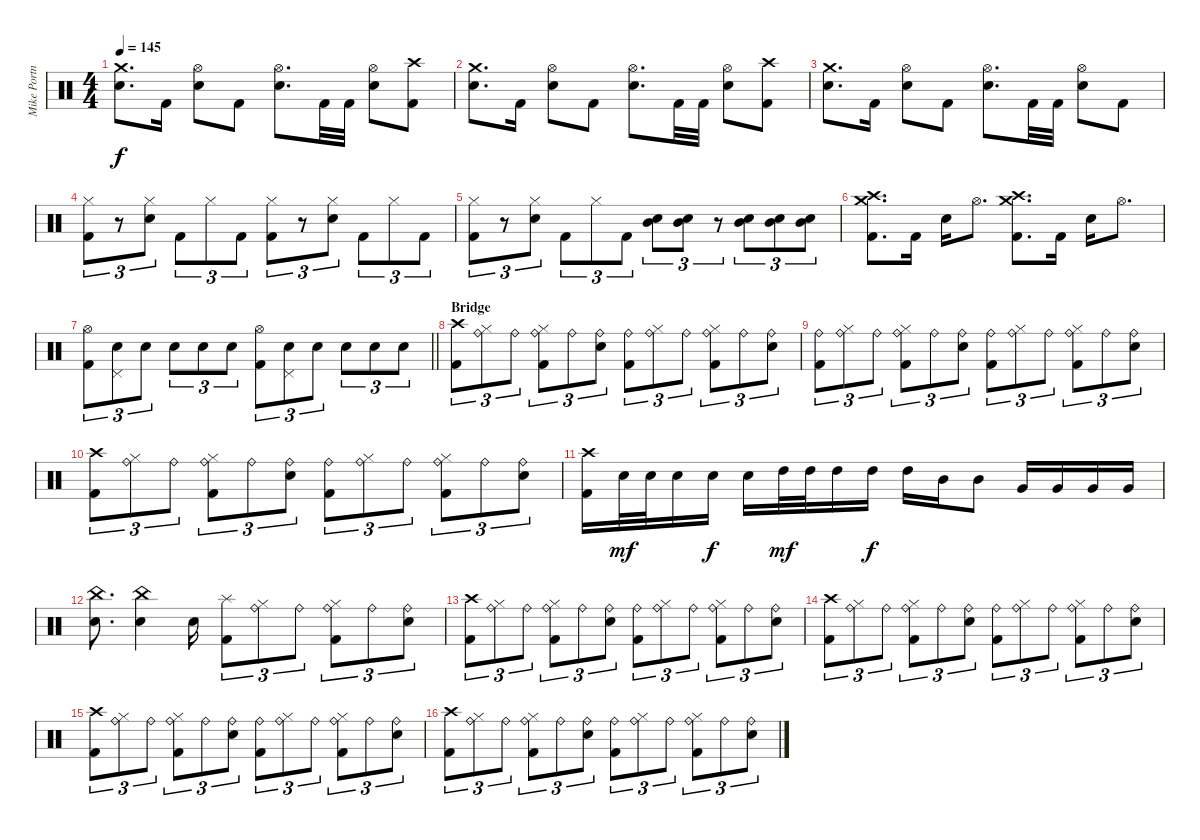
\track ("Mike Portnoy" "Mike Portn") {instrument percussion}
\staff {score}
\articulation defaults
\ts (4 4)
\tempo 145
\clef neutral
\ks c
("Crash medium (hit)" "Electric Snare (hit)").8{d dy f} "Kick (hit) 2".16 ("Hi-Hat (open)" "Electric Snare (hit)").8 "Kick (hit) 2".8 ("Hi-Hat (open)" "Electric Snare (hit)").8{d} "Kick (hit) 2".32 "Kick (hit) 2".32 ("Hi-Hat (open)" "Electric Snare (hit)").8 ("Crash high (hit)" "Kick (hit) 2").8 |
("Crash medium (hit)" "Electric Snare (hit)").8{d} "Kick (hit) 2".16 ("Hi-Hat (open)" "Electric Snare (hit)").8 "Kick (hit) 2".8 ("Hi-Hat (open)" "Electric Snare (hit)").8{d} "Kick (hit) 2".32 "Kick (hit) 2".32 ("Hi-Hat (open)" "Electric Snare (hit)").8 ("Crash high (hit)" "Kick (hit) 2").8 |
("Crash medium (hit)" "Electric Snare (hit)").8{d} "Kick (hit) 2".16 ("Hi-Hat (open)" "Electric Snare (hit)").8 "Kick (hit) 2".8 ("Hi-Hat (open)" "Electric Snare (hit)").8{d} "Kick (hit) 2".32 "Kick (hit) 2".32 ("Hi-Hat (open)" "Electric Snare (hit)").8 "Kick (hit) 2".8 |
("Hi-Hat (closed)" "Kick (hit) 2").8{tu (3 2)} r.8{tu (3 2)} ("Hi-Hat (closed)" "Electric Snare (hit)").8{tu (3 2)} "Kick (hit) 2".8{tu (3 2)} "Hi-Hat (closed)".8{tu (3 2)} "Kick (hit) 2".8{tu (3 2)} ("Hi-Hat (closed)" "Kick (hit) 2").8{tu (3 2)} r.8{tu (3 2)} ("Hi-Hat (closed)" "Electric Snare (hit)").8{tu (3 2)} "Kick (hit) 2".8{tu (3 2)} "Hi-Hat (closed)".8{tu (3 2)} "Kick (hit) 2".8{tu (3 2)} |
("Hi-Hat (closed)" "Kick (hit) 2").8{tu (3 2)} r.8{tu (3 2)} ("Hi-Hat (closed)" "Electric Snare (hit)").8{tu (3 2)} "Kick (hit) 2".8{tu (3 2)} "Hi-Hat (closed)".8{tu (3 2)} "Kick (hit) 2".8{tu (3 2)} ("Mid Tom (hit)" "Electric Snare (hit)").8{tu (3 2)} ("Mid Tom (hit)" "Electric Snare (hit)").8{tu (3 2)} r.8{tu (3 2)} ("Mid Tom (hit)" "Electric Snare (hit)").8{tu (3 2)} ("Mid Tom (hit)" "Electric Snare (hit)").8{tu (3 2)} ("Mid Tom (hit)" "Electric Snare (hit)").8{tu (3 2)} |
("Crash high (hit)" "Crash medium (hit)" "Kick (hit) 2").8{d} "Kick (hit) 2".16 "Electric Snare (hit)".16 "Hi-Hat (open)".8{d} ("Crash high (hit)" "Crash medium (hit)" "Kick (hit) 2").8{d} "Kick (hit) 2".16 "Electric Snare (hit)".16 "Hi-Hat (open)".8{d} |
\barLineRight lightlight
("Hi-Hat (open)" "Kick (hit) 2").8{tu (3 2)} ("Electric Snare (hit)" "Pedal Hi-Hat (hit)").8{tu (3 2)} "Electric Snare (hit)".8{tu (3 2)} "Electric Snare (hit)".8{tu (3 2)} "Electric Snare (hit)".8{tu (3 2)} "Electric Snare (hit)".8{tu (3 2)} ("Hi-Hat (open)" "Kick (hit) 2").8{tu (3 2)} ("Electric Snare (hit)" "Pedal Hi-Hat (hit)").8{tu (3 2)} "Electric Snare (hit)".8{tu (3 2)} "Electric Snare (hit)".8{tu (3 2)} "Electric Snare (hit)".8{tu (3 2)} "Electric Snare (hit)".8{tu (3 2)} |
\section ("" "Bridge")
("Crash high (hit)" "Kick (hit) 2").8{tu (3 2)} ("Ride (bell)" "Hi-Hat (closed)").8{tu (3 2)} "Ride (bell)".8{tu (3 2)} ("Ride (bell)" "Hi-Hat (closed)" "Kick (hit) 2").8{tu (3 2)} "Ride (bell)".8{tu (3 2)} ("Ride (bell)" "Electric Snare (hit)").8{tu (3 2)} ("Ride (bell)" "Kick (hit) 2").8{tu (3 2)} ("Ride (bell)" "Hi-Hat (closed)").8{tu (3 2)} "Ride (bell)".8{tu (3 2)} ("Ride (bell)" "Hi-Hat (closed)" "Kick (hit) 2").8{tu (3 2)} "Ride (bell)".8{tu (3 2)} ("Ride (bell)" "Electric Snare (hit)").8{tu (3 2)} |
("Ride (bell)" "Kick (hit) 2").8{tu (3 2)} ("Ride (bell)" "Hi-Hat (closed)").8{tu (3 2)} "Ride (bell)".8{tu (3 2)} ("Ride (bell)" "Hi-Hat (closed)" "Kick (hit) 2").8{tu (3 2)} "Ride (bell)".8{tu (3 2)} ("Ride (bell)" "Electric Snare (hit)").8{tu (3 2)} ("Ride (bell)" "Kick (hit) 2").8{tu (3 2)} ("Ride (bell)" "Hi-Hat (closed)").8{tu (3 2)} "Ride (bell)".8{tu (3 2)} ("Ride (bell)" "Hi-Hat (closed)" "Kick (hit) 2").8{tu (3 2)} "Ride (bell)".8{tu (3 2)} ("Ride (bell)" "Electric Snare (hit)").8{tu (3 2)} |
("Crash high (hit)" "Kick (hit) 2").8{tu (3 2)} ("Ride (bell)" "Hi-Hat (closed)").8{tu (3 2)} "Ride (bell)".8{tu (3 2)} ("Ride (bell)" "Hi-Hat (closed)" "Kick (hit) 2").8{tu (3 2)} "Ride (bell)".8{tu (3 2)} ("Ride (bell)" "Electric Snare (hit)").8{tu (3 2)} ("Ride (bell)" "Kick (hit) 2").8{tu (3 2)} ("Ride (bell)" "Hi-Hat (closed)").8{tu (3 2)} "Ride (bell)".8{tu (3 2)} ("Ride (bell)" "Hi-Hat (closed)" "Kick (hit) 2").8{tu (3 2)} "Ride (bell)".8{tu (3 2)} ("Ride (bell)" "Electric Snare (hit)").8{tu (3 2)} |
("Crash high (hit)" "Kick (hit) 2").16 "Electric Snare (hit)".32{dy mf} "Electric Snare (hit)".32 "Electric Snare (hit)".16 "Electric Snare (hit)".16{dy f} "Electric Snare (hit)".16 "High Tom (hit)".32{dy mf} "High Tom (hit)".32 "High Tom (hit)".16 "High Tom (hit)".16{dy f} "High Tom (hit)".16 "Mid Tom (hit)".16 "Mid Tom (hit)".8 "Very Low Tom (hit)".16 "Very Low Tom (hit)".16 "Very Low Tom (hit)".16 "Very Low Tom (hit)".16 |
("China (hit)" "Electric Snare (hit)").8{d} ("China (hit)" "Electric Snare (hit)").4 "Electric Snare (hit)".16 ("Splash (hit)" "Kick (hit) 2").8{tu (3 2)} ("Ride (bell)" "Hi-Hat (closed)").8{tu (3 2)} "Ride (bell)".8{tu (3 2)} ("Ride (bell)" "Hi-Hat (closed)" "Kick (hit) 2").8{tu (3 2)} "Ride (bell)".8{tu (3 2)} ("Ride (bell)" "Electric Snare (hit)").8{tu (3 2)} |
("Crash high (hit)" "Kick (hit) 2").8{tu (3 2)} ("Ride (bell)" "Hi-Hat (closed)").8{tu (3 2)} "Ride (bell)".8{tu (3 2)} ("Ride (bell)" "Hi-Hat (closed)" "Kick (hit) 2").8{tu (3 2)} "Ride (bell)".8{tu (3 2)} ("Ride (bell)" "Electric Snare (hit)").8{tu (3 2)} ("Ride (bell)" "Kick (hit) 2").8{tu (3 2)} ("Ride (bell)" "Hi-Hat (closed)").8{tu (3 2)} "Ride (bell)".8{tu (3 2)} ("Ride (bell)" "Hi-Hat (closed)" "Kick (hit) 2").8{tu (3 2)} "Ride (bell)".8{tu (3 2)} ("Ride (bell)" "Electric Snare (hit)").8{tu (3 2)} |
("Crash high (hit)" "Kick (hit) 2").8{tu (3 2)} ("Ride (bell)" "Hi-Hat (closed)").8{tu (3 2)} "Ride (bell)".8{tu (3 2)} ("Ride (bell)" "Hi-Hat (closed)" "Kick (hit) 2").8{tu (3 2)} "Ride (bell)".8{tu (3 2)} ("Ride (bell)" "Electric Snare (hit)").8{tu (3 2)} ("Ride (bell)" "Kick (hit) 2").8{tu (3 2)} ("Ride (bell)" "Hi-Hat (closed)").8{tu (3 2)} "Ride (bell)".8{tu (3 2)} ("Ride (bell)" "Hi-Hat (closed)" "Kick (hit) 2").8{tu (3 2)} "Ride (bell)".8{tu (3 2)} ("Ride (bell)" "Electric Snare (hit)").8{tu (3 2)} |
("Crash high (hit)" "Kick (hit) 2").8{tu (3 2)} ("Ride (bell)" "Hi-Hat (closed)").8{tu (3 2)} "Ride (bell)".8{tu (3 2)} ("Ride (bell)" "Hi-Hat (closed)" "Kick (hit) 2").8{tu (3 2)} "Ride (bell)".8{tu (3 2)} ("Ride (bell)" "Electric Snare (hit)").8{tu (3 2)} ("Ride (bell)" "Kick (hit) 2").8{tu (3 2)} ("Ride (bell)" "Hi-Hat (closed)").8{tu (3 2)} "Ride (bell)".8{tu (3 2)} ("Ride (bell)" "Hi-Hat (closed)" "Kick (hit) 2").8{tu (3 2)} "Ride (bell)".8{tu (3 2)} ("Ride (bell)" "Electric Snare (hit)").8{tu (3 2)} |
("Crash high (hit)" "Kick (hit) 2").8{tu (3 2)} ("Ride (bell)" "Hi-Hat (closed)").8{tu (3 2)} "Ride (bell)".8{tu (3 2)} ("Ride (bell)" "Hi-Hat (closed)" "Kick (hit) 2").8{tu (3 2)} "Ride (bell)".8{tu (3 2)} ("Ride (bell)" "Electric Snare (hit)").8{tu (3 2)} ("Ride (bell)" "Kick (hit) 2").8{tu (3 2)} ("Ride (bell)" "Hi-Hat (closed)").8{tu (3 2)} "Ride (bell)".8{tu (3 2)} ("Ride (bell)" "Hi-Hat (closed)" "Kick (hit) 2").8{tu (3 2)} "Ride (bell)".8{tu (3 2)} ("Ride (bell)" "Electric Snare (hit)").8{tu (3 2)}
